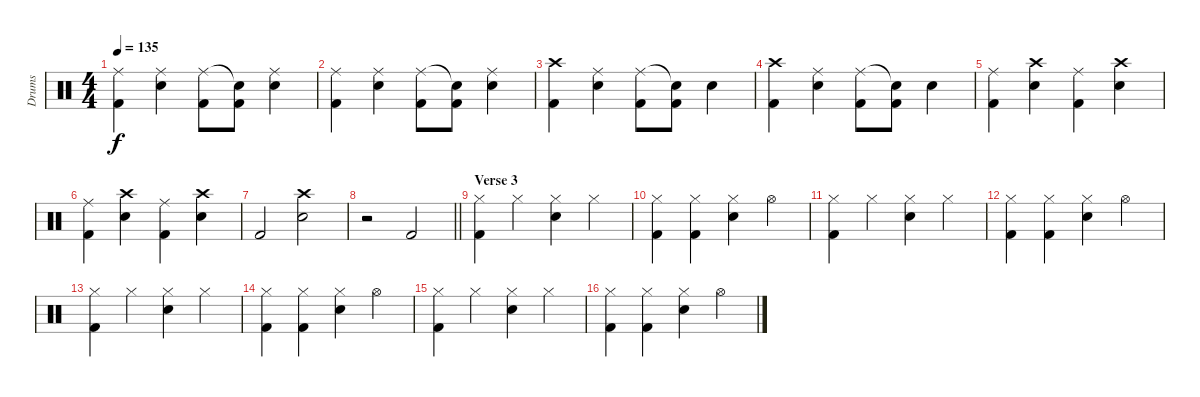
\track ("Drums" "Drums") {instrument percussion}
\staff {score}
\articulation defaults
\ts (4 4)
\tempo 135
\clef neutral
\ks c
("Ride (middle)" "Kick (hit) 2").4{dy f} ("Ride (middle)" "Snare (hit) 2").4 ("Ride (middle)" "Kick (hit) 2").8 ("Snare (hit)"{t} "Kick (hit) 2").8 ("Ride (middle)" "Snare (hit) 2").4 |
("Ride (middle)" "Kick (hit) 2").4 ("Ride (middle)" "Snare (hit) 2").4 ("Ride (middle)" "Kick (hit) 2").8 ("Snare (hit)"{t} "Kick (hit) 2").8 ("Ride (middle)" "Snare (hit) 2").4 |
("Crash high (hit)" "Kick (hit) 2").4 ("Ride (middle)" "Snare (hit) 2").4 ("Ride (middle)" "Kick (hit) 2").8 ("Snare (hit)"{t} "Kick (hit) 2").8 "Snare (hit) 2".4 |
("Crash high (hit)" "Kick (hit) 2").4 ("Ride (middle)" "Snare (hit) 2").4 ("Ride (middle)" "Kick (hit) 2").8 ("Snare (hit)"{t} "Kick (hit) 2").8 "Snare (hit) 2".4 |
("Ride (middle)" "Kick (hit) 2").4 ("Crash high (hit)" "Snare (hit) 2").4 ("Ride (middle)" "Kick (hit) 2").4 ("Crash high (hit)" "Snare (hit) 2").4 |
("Ride (middle)" "Kick (hit) 2").4 ("Crash high (hit)" "Snare (hit) 2").4 ("Ride (middle)" "Kick (hit) 2").4 ("Crash high (hit)" "Snare (hit) 2").4 |
"Kick (hit) 2".2 ("Crash high (hit)" "Snare (hit) 2").2 |
\barLineRight lightlight
r.2 "Kick (hit) 2".2 |
\section ("" "Verse 3")
("Hi-Hat (closed)" "Kick (hit) 2").4 "Hi-Hat (closed)".4 ("Hi-Hat (closed)" "Snare (hit) 2").4 "Hi-Hat (closed)".4 |
("Hi-Hat (closed)" "Kick (hit) 2").4 ("Hi-Hat (closed)" "Kick (hit) 2").4 ("Hi-Hat (closed)" "Snare (hit) 2").4 "Hi-Hat (open)".4 |
("Hi-Hat (closed)" "Kick (hit) 2").4 "Hi-Hat (closed)".4 ("Hi-Hat (closed)" "Snare (hit) 2").4 "Hi-Hat (closed)".4 |
("Hi-Hat (closed)" "Kick (hit) 2").4 ("Hi-Hat (closed)" "Kick (hit) 2").4 ("Hi-Hat (closed)" "Snare (hit) 2").4 "Hi-Hat (open)".4 |
("Hi-Hat (closed)" "Kick (hit) 2").4 "Hi-Hat (closed)".4 ("Hi-Hat (closed)" "Snare (hit) 2").4 "Hi-Hat (closed)".4 |
("Hi-Hat (closed)" "Kick (hit) 2").4 ("Hi-Hat (closed)" "Kick (hit) 2").4 ("Hi-Hat (closed)" "Snare (hit) 2").4 "Hi-Hat (open)".4 |
("Hi-Hat (closed)" "Kick (hit) 2").4 "Hi-Hat (closed)".4 ("Hi-Hat (closed)" "Snare (hit) 2").4 "Hi-Hat (closed)".4 |
("Hi-Hat (closed)" "Kick (hit) 2").4 ("Hi-Hat (closed)" "Kick (hit) 2").4 ("Hi-Hat (closed)" "Snare (hit) 2").4 "Hi-Hat (open)".4
